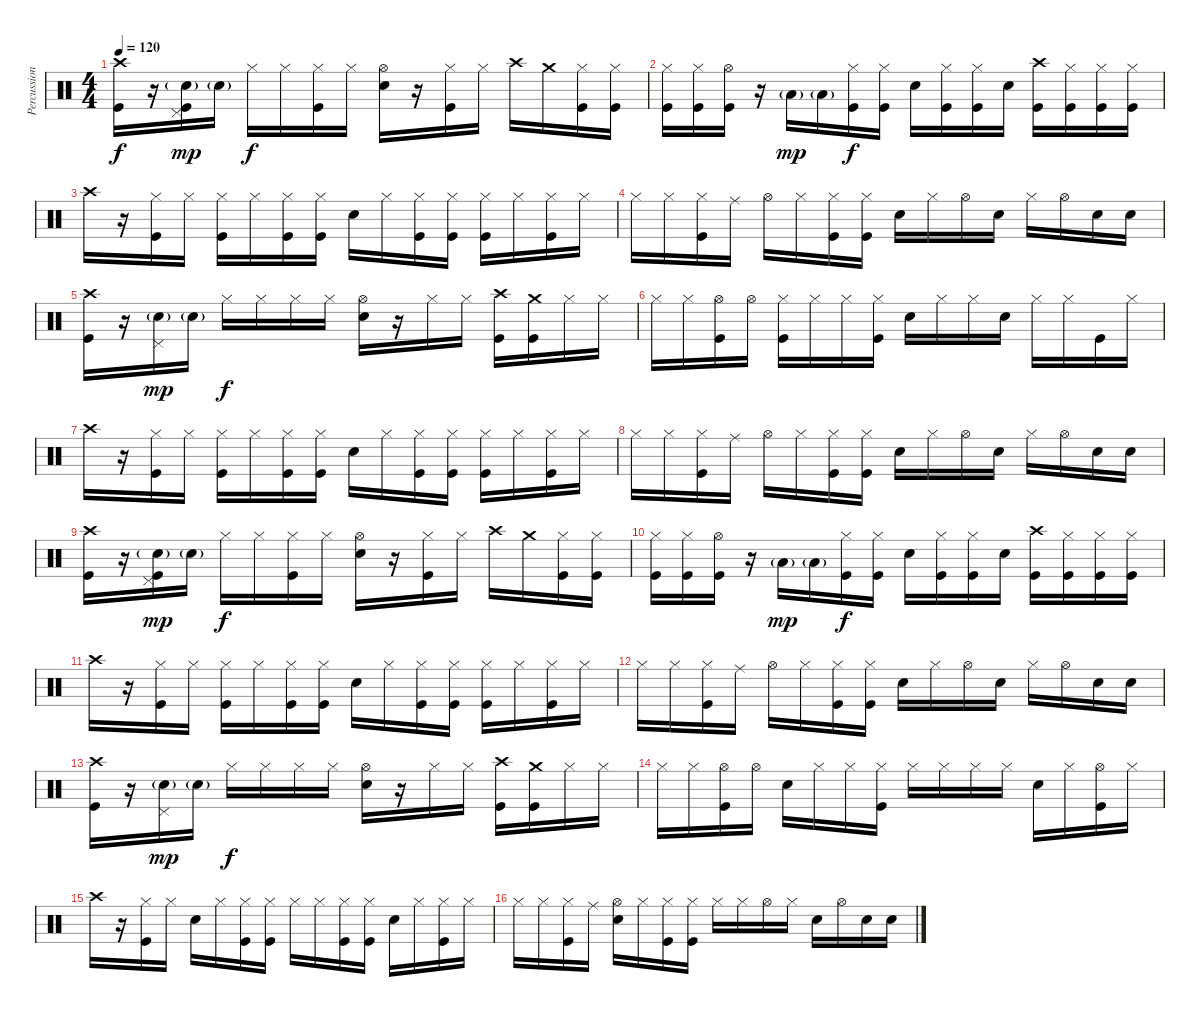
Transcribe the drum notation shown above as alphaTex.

\track ("Percussion" "Percussion") {instrument percussion}
\staff {score}
\articulation defaults
\ts (4 4)
\tempo 120
\clef neutral
\ks c
("Crash high (hit)" "Kick (hit)").16{dy f} r.16 ("Pedal Hi-Hat (hit)" "Electric Snare (hit)"{g} "Kick (hit)").16{dy mp} "Electric Snare (hit)"{g}.16 "Hi-Hat (closed)".16{dy f} "Hi-Hat (closed)".16 ("Hi-Hat (closed)" "Kick (hit)").16 "Hi-Hat (closed)".16 ("Hi-Hat (open)" "Electric Snare (hit)").16 r.16 ("Hi-Hat (closed)" "Kick (hit)").16 "Hi-Hat (closed)".16 "Crash high (hit)".16 "Crash medium (hit)".16 ("Hi-Hat (closed)" "Kick (hit)").16 ("Hi-Hat (closed)" "Kick (hit)").16 |
("Hi-Hat (closed)" "Kick (hit)").16 ("Hi-Hat (closed)" "Kick (hit)").16 ("Hi-Hat (open)" "Kick (hit)").16 r.16 "Low Tom (hit)"{g}.16{dy mp} "Low Tom (hit)"{g}.16 ("Hi-Hat (closed)" "Kick (hit)").16{dy f} ("Hi-Hat (closed)" "Kick (hit)").16 "Electric Snare (hit)".16 ("Hi-Hat (closed)" "Kick (hit)").16 ("Hi-Hat (closed)" "Kick (hit)").16 "Electric Snare (hit)".16 ("Crash high (hit)" "Kick (hit)").16 ("Hi-Hat (closed)" "Kick (hit)").16 ("Hi-Hat (closed)" "Kick (hit)").16 ("Hi-Hat (closed)" "Kick (hit)").16 |
"Crash high (hit)".16 r.16 ("Hi-Hat (closed)" "Kick (hit)").16 "Hi-Hat (closed)".16 ("Hi-Hat (closed)" "Kick (hit)").16 "Hi-Hat (closed)".16 ("Hi-Hat (closed)" "Kick (hit)").16 ("Hi-Hat (closed)" "Kick (hit)").16 "Electric Snare (hit)".16 "Hi-Hat (closed)".16 ("Hi-Hat (closed)" "Kick (hit)").16 ("Hi-Hat (closed)" "Kick (hit)").16 ("Hi-Hat (closed)" "Kick (hit)").16 "Hi-Hat (closed)".16 ("Hi-Hat (closed)" "Kick (hit)").16 "Hi-Hat (closed)".16 |
"Hi-Hat (closed)".16 "Hi-Hat (closed)".16 ("Hi-Hat (closed)" "Kick (hit)").16 "Ride (middle)".16 "Hi-Hat (open)".16 "Hi-Hat (closed)".16 ("Hi-Hat (closed)" "Kick (hit)").16 ("Hi-Hat (closed)" "Kick (hit)").16 "Electric Snare (hit)".16 "Hi-Hat (closed)".16 "Hi-Hat (open)".16 "Electric Snare (hit)".16 "Hi-Hat (closed)".16 "Hi-Hat (open)".16 "Electric Snare (hit)".16 "Electric Snare (hit)".16 |
("Crash high (hit)" "Kick (hit)").16 r.16 ("Pedal Hi-Hat (hit)" "Electric Snare (hit)"{g}).16{dy mp} "Electric Snare (hit)"{g}.16 "Hi-Hat (closed)".16{dy f} "Hi-Hat (closed)".16 "Hi-Hat (closed)".16 "Hi-Hat (closed)".16 ("Hi-Hat (open)" "Electric Snare (hit)").16 r.16 "Hi-Hat (closed)".16 "Hi-Hat (closed)".16 ("Crash high (hit)" "Kick (hit)").16 ("Crash medium (hit)" "Kick (hit)").16 "Hi-Hat (closed)".16 "Hi-Hat (closed)".16 |
"Hi-Hat (closed)".16 "Hi-Hat (closed)".16 ("Hi-Hat (open)" "Kick (hit)").16 "Hi-Hat (open)".16 ("Hi-Hat (closed)" "Kick (hit)").16 "Hi-Hat (closed)".16 "Hi-Hat (closed)".16 ("Hi-Hat (closed)" "Kick (hit)").16 "Electric Snare (hit)".16 "Hi-Hat (closed)".16 "Hi-Hat (closed)".16 "Electric Snare (hit)".16 "Hi-Hat (closed)".16 "Hi-Hat (closed)".16 "Kick (hit)".16 "Hi-Hat (closed)".16 |
"Crash high (hit)".16 r.16 ("Hi-Hat (closed)" "Kick (hit)").16 "Hi-Hat (closed)".16 ("Hi-Hat (closed)" "Kick (hit)").16 "Hi-Hat (closed)".16 ("Hi-Hat (closed)" "Kick (hit)").16 ("Hi-Hat (closed)" "Kick (hit)").16 "Electric Snare (hit)".16 "Hi-Hat (closed)".16 ("Hi-Hat (closed)" "Kick (hit)").16 ("Hi-Hat (closed)" "Kick (hit)").16 ("Hi-Hat (closed)" "Kick (hit)").16 "Hi-Hat (closed)".16 ("Hi-Hat (closed)" "Kick (hit)").16 "Hi-Hat (closed)".16 |
"Hi-Hat (closed)".16 "Hi-Hat (closed)".16 ("Hi-Hat (closed)" "Kick (hit)").16 "Ride (middle)".16 "Hi-Hat (open)".16 "Hi-Hat (closed)".16 ("Hi-Hat (closed)" "Kick (hit)").16 ("Hi-Hat (closed)" "Kick (hit)").16 "Electric Snare (hit)".16 "Hi-Hat (closed)".16 "Hi-Hat (open)".16 "Electric Snare (hit)".16 "Hi-Hat (closed)".16 "Hi-Hat (open)".16 "Electric Snare (hit)".16 "Electric Snare (hit)".16 |
("Crash high (hit)" "Kick (hit)").16 r.16 ("Pedal Hi-Hat (hit)" "Electric Snare (hit)"{g} "Kick (hit)").16{dy mp} "Electric Snare (hit)"{g}.16 "Hi-Hat (closed)".16{dy f} "Hi-Hat (closed)".16 ("Hi-Hat (closed)" "Kick (hit)").16 "Hi-Hat (closed)".16 ("Hi-Hat (open)" "Electric Snare (hit)").16 r.16 ("Hi-Hat (closed)" "Kick (hit)").16 "Hi-Hat (closed)".16 "Crash high (hit)".16 "Crash medium (hit)".16 ("Hi-Hat (closed)" "Kick (hit)").16 ("Hi-Hat (closed)" "Kick (hit)").16 |
("Hi-Hat (closed)" "Kick (hit)").16 ("Hi-Hat (closed)" "Kick (hit)").16 ("Hi-Hat (open)" "Kick (hit)").16 r.16 "Low Tom (hit)"{g}.16{dy mp} "Low Tom (hit)"{g}.16 ("Hi-Hat (closed)" "Kick (hit)").16{dy f} ("Hi-Hat (closed)" "Kick (hit)").16 "Electric Snare (hit)".16 ("Hi-Hat (closed)" "Kick (hit)").16 ("Hi-Hat (closed)" "Kick (hit)").16 "Electric Snare (hit)".16 ("Crash high (hit)" "Kick (hit)").16 ("Hi-Hat (closed)" "Kick (hit)").16 ("Hi-Hat (closed)" "Kick (hit)").16 ("Hi-Hat (closed)" "Kick (hit)").16 |
"Crash high (hit)".16 r.16 ("Hi-Hat (closed)" "Kick (hit)").16 "Hi-Hat (closed)".16 ("Hi-Hat (closed)" "Kick (hit)").16 "Hi-Hat (closed)".16 ("Hi-Hat (closed)" "Kick (hit)").16 ("Hi-Hat (closed)" "Kick (hit)").16 "Electric Snare (hit)".16 "Hi-Hat (closed)".16 ("Hi-Hat (closed)" "Kick (hit)").16 ("Hi-Hat (closed)" "Kick (hit)").16 ("Hi-Hat (closed)" "Kick (hit)").16 "Hi-Hat (closed)".16 ("Hi-Hat (closed)" "Kick (hit)").16 "Hi-Hat (closed)".16 |
"Hi-Hat (closed)".16 "Hi-Hat (closed)".16 ("Hi-Hat (closed)" "Kick (hit)").16 "Ride (middle)".16 "Hi-Hat (open)".16 "Hi-Hat (closed)".16 ("Hi-Hat (closed)" "Kick (hit)").16 ("Hi-Hat (closed)" "Kick (hit)").16 "Electric Snare (hit)".16 "Hi-Hat (closed)".16 "Hi-Hat (open)".16 "Electric Snare (hit)".16 "Hi-Hat (closed)".16 "Hi-Hat (open)".16 "Electric Snare (hit)".16 "Electric Snare (hit)".16 |
("Crash high (hit)" "Kick (hit)").16 r.16 ("Pedal Hi-Hat (hit)" "Electric Snare (hit)"{g}).16{dy mp} "Electric Snare (hit)"{g}.16 "Hi-Hat (closed)".16{dy f} "Hi-Hat (closed)".16 "Hi-Hat (closed)".16 "Hi-Hat (closed)".16 ("Hi-Hat (open)" "Electric Snare (hit)").16 r.16 "Hi-Hat (closed)".16 "Hi-Hat (closed)".16 ("Crash high (hit)" "Kick (hit)").16 ("Crash medium (hit)" "Kick (hit)").16 "Hi-Hat (closed)".16 "Hi-Hat (closed)".16 |
"Hi-Hat (closed)".16 "Hi-Hat (closed)".16 ("Hi-Hat (open)" "Kick (hit)").16 "Hi-Hat (open)".16 "Electric Snare (hit)".16 "Hi-Hat (closed)".16 "Hi-Hat (closed)".16 ("Hi-Hat (closed)" "Kick (hit)").16 "Hi-Hat (closed)".16 "Hi-Hat (closed)".16 "Hi-Hat (closed)".16 "Hi-Hat (closed)".16 "Electric Snare (hit)".16 "Hi-Hat (closed)".16 ("Hi-Hat (open)" "Kick (hit)").16 "Hi-Hat (closed)".16 |
"Crash high (hit)".16 r.16 ("Hi-Hat (closed)" "Kick (hit)").16 "Hi-Hat (closed)".16 "Electric Snare (hit)".16 "Hi-Hat (closed)".16 ("Hi-Hat (closed)" "Kick (hit)").16 ("Hi-Hat (closed)" "Kick (hit)").16 "Hi-Hat (closed)".16 "Hi-Hat (closed)".16 ("Hi-Hat (closed)" "Kick (hit)").16 ("Hi-Hat (closed)" "Kick (hit)").16 "Electric Snare (hit)".16 "Hi-Hat (closed)".16 ("Hi-Hat (closed)" "Kick (hit)").16 "Hi-Hat (closed)".16 |
"Hi-Hat (closed)".16 "Hi-Hat (closed)".16 ("Hi-Hat (closed)" "Kick (hit)").16 "Ride (middle)".16 ("Hi-Hat (open)" "Electric Snare (hit)").16 "Hi-Hat (closed)".16 ("Hi-Hat (closed)" "Kick (hit)").16 ("Hi-Hat (closed)" "Kick (hit)").16 "Hi-Hat (closed)".16 "Hi-Hat (closed)".16 "Hi-Hat (open)".16 "Hi-Hat (closed)".16 "Electric Snare (hit)".16 "Hi-Hat (open)".16 "Electric Snare (hit)".16 "Electric Snare (hit)".16
